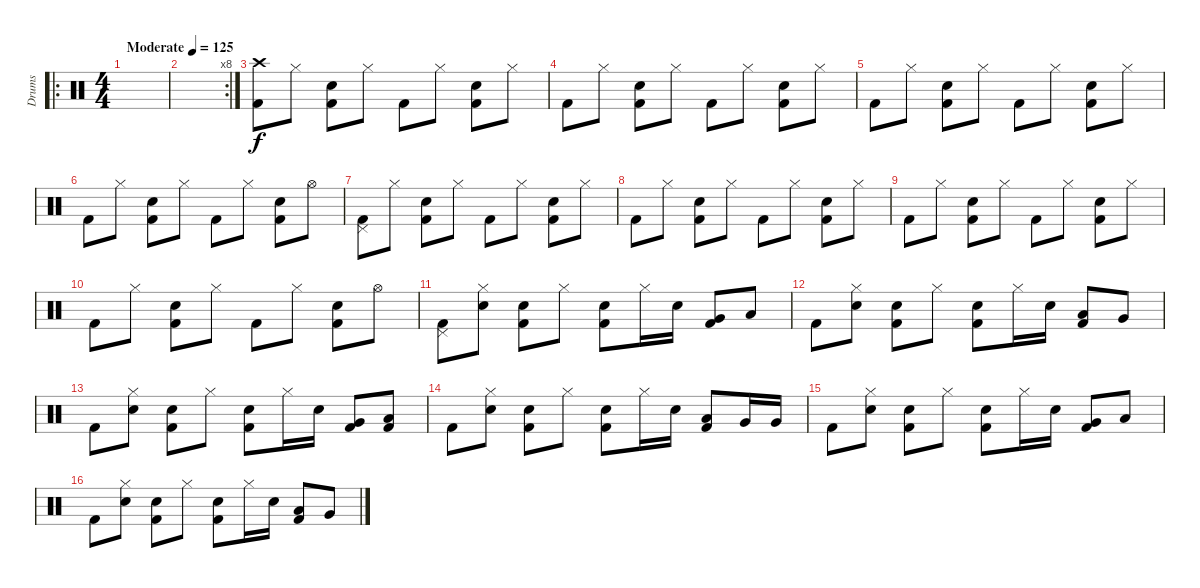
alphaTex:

\track ("Drums" "Drums") {instrument percussion}
\staff {score}
\articulation defaults
\ro
\ts (4 4)
\tempo (125 "Moderate")
\clef neutral
\ks c
|
\rc 8
|
("Crash high (hit)" "Kick (hit) 2").8 "Hi-Hat (closed)".8 ("Electric Snare (hit)" "Kick (hit) 2").8 "Hi-Hat (closed)".8 "Kick (hit) 2".8 "Hi-Hat (closed)".8 ("Electric Snare (hit)" "Kick (hit) 2").8 "Hi-Hat (closed)".8 |
"Kick (hit) 2".8 "Hi-Hat (closed)".8 ("Electric Snare (hit)" "Kick (hit) 2").8 "Hi-Hat (closed)".8 "Kick (hit) 2".8 "Hi-Hat (closed)".8 ("Electric Snare (hit)" "Kick (hit) 2").8 "Hi-Hat (closed)".8 |
"Kick (hit) 2".8 "Hi-Hat (closed)".8 ("Electric Snare (hit)" "Kick (hit) 2").8 "Hi-Hat (closed)".8 "Kick (hit) 2".8 "Hi-Hat (closed)".8 ("Electric Snare (hit)" "Kick (hit) 2").8 "Hi-Hat (closed)".8 |
"Kick (hit) 2".8 "Hi-Hat (closed)".8 ("Electric Snare (hit)" "Kick (hit) 2").8 "Hi-Hat (closed)".8 "Kick (hit) 2".8 "Hi-Hat (closed)".8 ("Electric Snare (hit)" "Kick (hit) 2").8 "Hi-Hat (open)".8 |
("Pedal Hi-Hat (hit)" "Kick (hit) 2").8 "Hi-Hat (closed)".8 ("Electric Snare (hit)" "Kick (hit) 2").8 "Hi-Hat (closed)".8 "Kick (hit) 2".8 "Hi-Hat (closed)".8 ("Electric Snare (hit)" "Kick (hit) 2").8 "Hi-Hat (closed)".8 |
"Kick (hit) 2".8 "Hi-Hat (closed)".8 ("Electric Snare (hit)" "Kick (hit) 2").8 "Hi-Hat (closed)".8 "Kick (hit) 2".8 "Hi-Hat (closed)".8 ("Electric Snare (hit)" "Kick (hit) 2").8 "Hi-Hat (closed)".8 |
"Kick (hit) 2".8 "Hi-Hat (closed)".8 ("Electric Snare (hit)" "Kick (hit) 2").8 "Hi-Hat (closed)".8 "Kick (hit) 2".8 "Hi-Hat (closed)".8 ("Electric Snare (hit)" "Kick (hit) 2").8 "Hi-Hat (closed)".8 |
"Kick (hit) 2".8 "Hi-Hat (closed)".8 ("Electric Snare (hit)" "Kick (hit) 2").8 "Hi-Hat (closed)".8 "Kick (hit) 2".8 "Hi-Hat (closed)".8 ("Electric Snare (hit)" "Kick (hit) 2").8 "Hi-Hat (open)".8 |
("Pedal Hi-Hat (hit)" "Kick (hit) 2").8 ("Hi-Hat (closed)" "Electric Snare (hit)").8 ("Electric Snare (hit)" "Kick (hit) 2").8 "Hi-Hat (closed)".8 ("Electric Snare (hit)" "Kick (hit) 2").8 "Hi-Hat (closed)".16 "Electric Snare (hit)".16 ("Very Low Tom (hit)" "Kick (hit) 2").8 "Low Floor Tom (hit)".8 |
"Kick (hit) 2".8 ("Hi-Hat (closed)" "Electric Snare (hit)").8 ("Electric Snare (hit)" "Kick (hit) 2").8 "Hi-Hat (closed)".8 ("Electric Snare (hit)" "Kick (hit) 2").8 "Hi-Hat (closed)".16 "Electric Snare (hit)".16 ("Low Floor Tom (hit)" "Kick (hit) 2").8 "Very Low Tom (hit)".8 |
"Kick (hit) 2".8 ("Hi-Hat (closed)" "Electric Snare (hit)").8 ("Electric Snare (hit)" "Kick (hit) 2").8 "Hi-Hat (closed)".8 ("Electric Snare (hit)" "Kick (hit) 2").8 "Hi-Hat (closed)".16 "Electric Snare (hit)".16 ("Very Low Tom (hit)" "Kick (hit) 2").8 ("Low Floor Tom (hit)" "Kick (hit) 2").8 |
"Kick (hit) 2".8 ("Hi-Hat (closed)" "Electric Snare (hit)").8 ("Electric Snare (hit)" "Kick (hit) 2").8 "Hi-Hat (closed)".8 ("Electric Snare (hit)" "Kick (hit) 2").8 "Hi-Hat (closed)".16 "Electric Snare (hit)".16 ("Low Floor Tom (hit)" "Kick (hit) 2").8 "Very Low Tom (hit)".16 "Very Low Tom (hit)".16 |
"Kick (hit) 2".8 ("Hi-Hat (closed)" "Electric Snare (hit)").8 ("Electric Snare (hit)" "Kick (hit) 2").8 "Hi-Hat (closed)".8 ("Electric Snare (hit)" "Kick (hit) 2").8 "Hi-Hat (closed)".16 "Electric Snare (hit)".16 ("Very Low Tom (hit)" "Kick (hit) 2").8 "Low Floor Tom (hit)".8 |
"Kick (hit) 2".8 ("Hi-Hat (closed)" "Electric Snare (hit)").8 ("Electric Snare (hit)" "Kick (hit) 2").8 "Hi-Hat (closed)".8 ("Electric Snare (hit)" "Kick (hit) 2").8 "Hi-Hat (closed)".16 "Electric Snare (hit)".16 ("Low Floor Tom (hit)" "Kick (hit) 2").8 "Very Low Tom (hit)".8
